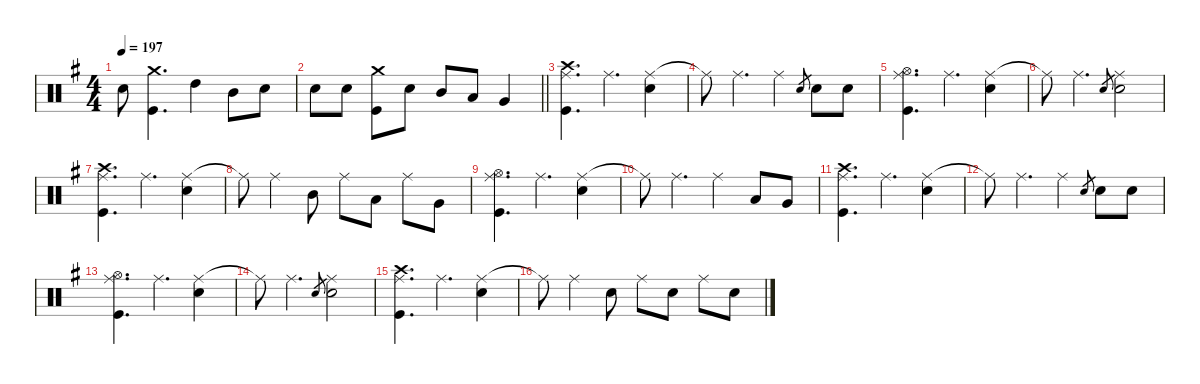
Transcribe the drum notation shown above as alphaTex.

\defaultSystemsLayout 4
\hideDynamics
\bracketExtendMode nobrackets
\singleTrackTrackNamePolicy hidden
\multiTrackTrackNamePolicy hidden
\firstSystemTrackNameMode fullname
\firstSystemTrackNameOrientation horizontal
\otherSystemsTrackNameOrientation horizontal
\track ("Drums" "drm.") {defaultSystemsLayout 4 instrument percussion}
\staff {score}
\articulation defaults
\ts (4 4)
\tempo 197
\clef neutral
\ks eminor "Snare (hit) 2"{acc forcenatural}.8{dy f beam Down}
("Crash medium (hit)"{acc forcenatural} "Kick (hit)"{acc forcenatural}).4{d beam Down} "High Tom (hit)"{acc forcenatural}.4{beam Down} "Mid Tom (hit)"{acc forcenatural}.8{beam Down} "Snare (hit) 2"{acc forcenatural}.8{dy mp beam Down} |
\barLineRight lightlight "Snare (hit) 2"{acc forcenatural}.8{dy mf beam Down} "Snare (hit) 2"{acc forcenatural}.8{dy f beam Down}
("Crash medium (hit)"{acc forcenatural} "Kick (hit)"{acc forcenatural}).8{beam Down} "Snare (hit) 2"{acc forcenatural}.8{beam Down} "Mid Tom (hit)"{acc forcenatural}.8{beam Up} "Low Tom (hit)"{acc forcenatural}.8{beam Up} "Very Low Tom (hit)"{acc forcenatural}.4{beam Up} |
("Crash high (hit)"{acc forcenatural} "Ride (middle)"{acc forcenatural} "Kick (hit)"{acc forcenatural}).4{d beam Down} "Ride (middle)"{acc forcenatural}.4{d beam Down} ("Ride (middle)"{acc forcenatural} "Snare (hit) 2"{acc forcenatural}).4{beam Down} |
"Ride (middle)"{t acc forcenatural}.8{beam Down} "Ride (middle)"{acc forcenatural}.4{d beam Down} "Ride (middle)"{acc forcenatural}.4{beam Down} "Electric Snare (hit)"{acc forcenatural}.8{gr dy p beam Up} "Snare (hit) 2"{acc forcenatural}.8{dy mp beam Down} "Snare (hit) 2"{acc forcenatural}.8{dy mf beam Down} |
("Hi-Hat (open)"{acc forcenatural} "Ride (middle)"{acc forcenatural} "Kick (hit)"{acc forcenatural}).4{d dy f beam Down} "Ride (middle)"{acc forcenatural}.4{d beam Down} ("Ride (middle)"{acc forcenatural} "Snare (hit) 2"{acc forcenatural}).4{beam Down} |
"Ride (middle)"{t acc forcenatural}.8{beam Down} "Ride (middle)"{acc forcenatural}.4{d beam Down} "Electric Snare (hit)"{acc forcenatural}.8{gr dy pp beam Up} ("Ride (middle)"{acc forcenatural} "Snare (hit) 2"{acc forcenatural}).2{dy f beam Down} |
("Crash high (hit)"{acc forcenatural} "Ride (middle)"{acc forcenatural} "Kick (hit)"{acc forcenatural}).4{d beam Down} "Ride (middle)"{acc forcenatural}.4{d beam Down} ("Ride (middle)"{acc forcenatural} "Snare (hit) 2"{acc forcenatural}).4{beam Down} |
"Ride (middle)"{t acc forcenatural}.8{beam Down} "Ride (middle)"{acc forcenatural}.4{beam Down} "Mid Tom (hit)"{acc forcenatural}.8{dy mp beam Down} "Ride (middle)"{acc forcenatural}.8{dy f beam Down} "Low Tom (hit)"{acc forcenatural}.8{dy mp beam Down} "Ride (middle)"{acc forcenatural}.8{dy f beam Down} "Very Low Tom (hit)"{acc forcenatural}.8{dy mp beam Down} |
("Hi-Hat (open)"{acc forcenatural} "Ride (middle)"{acc forcenatural} "Kick (hit)"{acc forcenatural}).4{d dy f beam Down} "Ride (middle)"{acc forcenatural}.4{d beam Down} ("Ride (middle)"{acc forcenatural} "Snare (hit) 2"{acc forcenatural}).4{beam Down} |
"Ride (middle)"{t acc forcenatural}.8{beam Down} "Ride (middle)"{acc forcenatural}.4{d beam Down} "Ride (middle)"{acc forcenatural}.4{beam Down} "Low Tom (hit)"{acc forcenatural}.8{dy mp beam Up} "Very Low Tom (hit)"{acc forcenatural}.8{dy mf beam Up} |
("Crash high (hit)"{acc forcenatural} "Ride (middle)"{acc forcenatural} "Kick (hit)"{acc forcenatural}).4{d dy f beam Down} "Ride (middle)"{acc forcenatural}.4{d beam Down} ("Ride (middle)"{acc forcenatural} "Snare (hit) 2"{acc forcenatural}).4{beam Down} |
"Ride (middle)"{t acc forcenatural}.8{beam Down} "Ride (middle)"{acc forcenatural}.4{d beam Down} "Ride (middle)"{acc forcenatural}.4{beam Down} "Electric Snare (hit)"{acc forcenatural}.8{gr dy p beam Up} "Snare (hit) 2"{acc forcenatural}.8{dy mp beam Down} "Snare (hit) 2"{acc forcenatural}.8{dy mf beam Down} |
("Hi-Hat (open)"{acc forcenatural} "Ride (middle)"{acc forcenatural} "Kick (hit)"{acc forcenatural}).4{d dy f beam Down} "Ride (middle)"{acc forcenatural}.4{d beam Down} ("Ride (middle)"{acc forcenatural} "Snare (hit) 2"{acc forcenatural}).4{beam Down} |
"Ride (middle)"{t acc forcenatural}.8{beam Down} "Ride (middle)"{acc forcenatural}.4{d beam Down} "Electric Snare (hit)"{acc forcenatural}.8{gr dy pp beam Up} ("Ride (middle)"{acc forcenatural} "Snare (hit) 2"{acc forcenatural}).2{dy f beam Down} |
("Crash high (hit)"{acc forcenatural} "Ride (middle)"{acc forcenatural} "Kick (hit)"{acc forcenatural}).4{d beam Down} "Ride (middle)"{acc forcenatural}.4{d beam Down} ("Ride (middle)"{acc forcenatural} "Snare (hit) 2"{acc forcenatural}).4{beam Down} |
"Ride (middle)"{t acc forcenatural}.8{beam Down} "Ride (middle)"{acc forcenatural}.4{beam Down} "Snare (hit) 2"{acc forcenatural}.8{dy mp beam Down} "Ride (middle)"{acc forcenatural}.8{dy f beam Down} "Snare (hit) 2"{acc forcenatural}.8{dy mp beam Down} "Ride (middle)"{acc forcenatural}.8{dy f beam Down} "Snare (hit) 2"{acc forcenatural}.8{dy mp beam Down}
